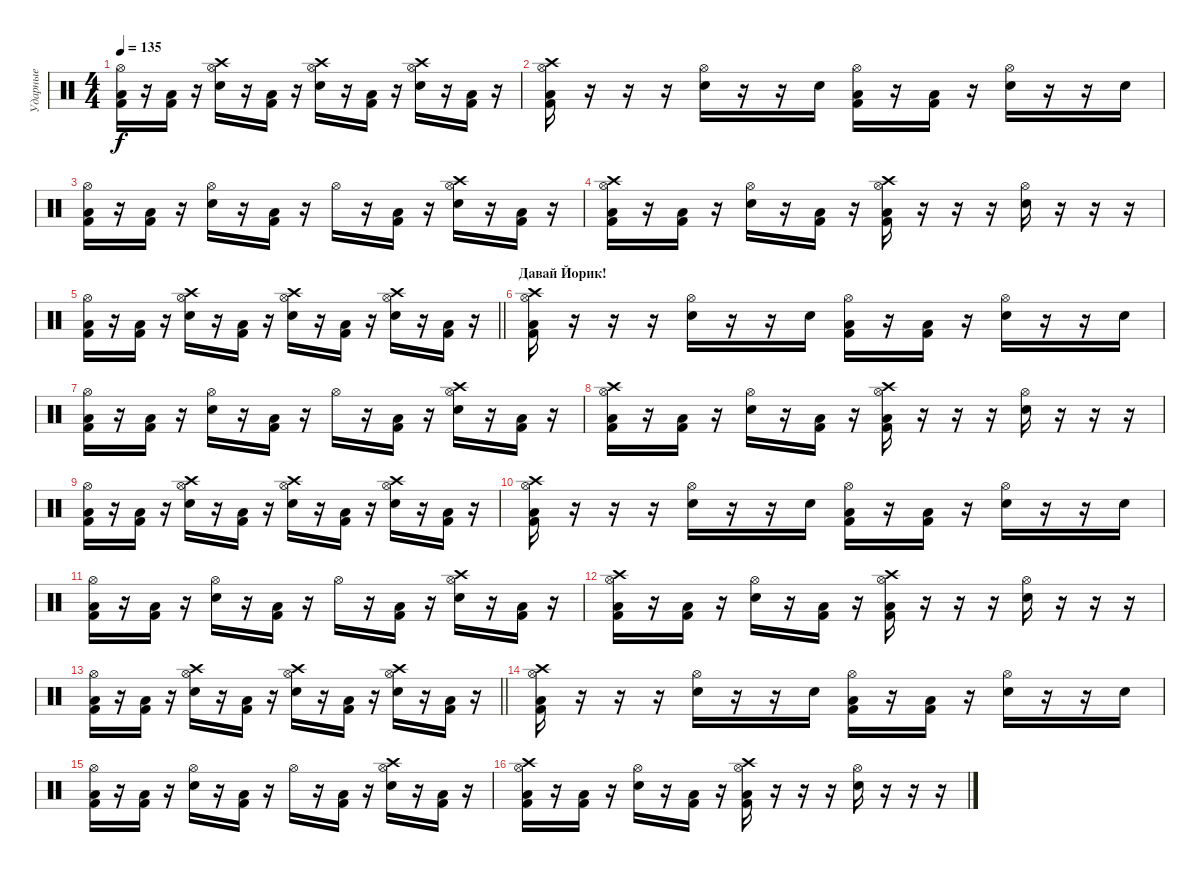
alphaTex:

\track ("Ударные" "Ударные") {instrument percussion}
\staff {score}
\articulation defaults
\ts (4 4)
\tempo 135
\clef neutral
\ks c
("Hi-Hat (open)" "Low Floor Tom (hit)" "Kick (hit) 2").16{dy f} r.16 ("Low Floor Tom (hit)" "Kick (hit) 2").16 r.16 ("Crash high (hit)" "Hi-Hat (open)" "Electric Snare (hit)").16 r.16 ("Low Floor Tom (hit)" "Kick (hit) 2").16 r.16 ("Crash high (hit)" "Hi-Hat (open)" "Electric Snare (hit)").16 r.16 ("Low Floor Tom (hit)" "Kick (hit) 2").16 r.16 ("Crash high (hit)" "Hi-Hat (open)" "Electric Snare (hit)").16 r.16 ("Low Floor Tom (hit)" "Kick (hit) 2").16 r.16 |
("Crash high (hit)" "Hi-Hat (open)" "Low Floor Tom (hit)" "Kick (hit) 2").16 r.16 r.16 r.16 ("Hi-Hat (open)" "Electric Snare (hit)").16 r.16 r.16 "Electric Snare (hit)".16 ("Hi-Hat (open)" "Low Floor Tom (hit)" "Kick (hit) 2").16 r.16 ("Low Floor Tom (hit)" "Kick (hit) 2").16 r.16 ("Hi-Hat (open)" "Electric Snare (hit)").16 r.16 r.16 "Electric Snare (hit)".16 |
("Hi-Hat (open)" "Low Floor Tom (hit)" "Kick (hit) 2").16 r.16 ("Low Floor Tom (hit)" "Kick (hit) 2").16 r.16 ("Hi-Hat (open)" "Electric Snare (hit)").16 r.16 ("Low Floor Tom (hit)" "Kick (hit) 2").16 r.16 "Hi-Hat (open)".16 r.16 ("Low Floor Tom (hit)" "Kick (hit) 2").16 r.16 ("Crash high (hit)" "Hi-Hat (open)" "Electric Snare (hit)").16 r.16 ("Low Floor Tom (hit)" "Kick (hit) 2").16 r.16 |
("Crash high (hit)" "Hi-Hat (open)" "Low Floor Tom (hit)" "Kick (hit) 2").16 r.16 ("Low Floor Tom (hit)" "Kick (hit) 2").16 r.16 ("Hi-Hat (open)" "Electric Snare (hit)").16 r.16 ("Low Floor Tom (hit)" "Kick (hit) 2").16 r.16 ("Crash high (hit)" "Hi-Hat (open)" "Low Floor Tom (hit)" "Kick (hit) 2").16 r.16 r.16 r.16 ("Hi-Hat (open)" "Electric Snare (hit)").16 r.16 r.16 r.16 |
\barLineRight lightlight
("Hi-Hat (open)" "Low Floor Tom (hit)" "Kick (hit) 2").16 r.16 ("Low Floor Tom (hit)" "Kick (hit) 2").16 r.16 ("Crash high (hit)" "Hi-Hat (open)" "Electric Snare (hit)").16 r.16 ("Low Floor Tom (hit)" "Kick (hit) 2").16 r.16 ("Crash high (hit)" "Hi-Hat (open)" "Electric Snare (hit)").16 r.16 ("Low Floor Tom (hit)" "Kick (hit) 2").16 r.16 ("Crash high (hit)" "Hi-Hat (open)" "Electric Snare (hit)").16 r.16 ("Low Floor Tom (hit)" "Kick (hit) 2").16 r.16 |
\section ("" "Давай Йорик!")
("Crash high (hit)" "Hi-Hat (open)" "Low Floor Tom (hit)" "Kick (hit) 2").16 r.16 r.16 r.16 ("Hi-Hat (open)" "Electric Snare (hit)").16 r.16 r.16 "Electric Snare (hit)".16 ("Hi-Hat (open)" "Low Floor Tom (hit)" "Kick (hit) 2").16 r.16 ("Low Floor Tom (hit)" "Kick (hit) 2").16 r.16 ("Hi-Hat (open)" "Electric Snare (hit)").16 r.16 r.16 "Electric Snare (hit)".16 |
("Hi-Hat (open)" "Low Floor Tom (hit)" "Kick (hit) 2").16 r.16 ("Low Floor Tom (hit)" "Kick (hit) 2").16 r.16 ("Hi-Hat (open)" "Electric Snare (hit)").16 r.16 ("Low Floor Tom (hit)" "Kick (hit) 2").16 r.16 "Hi-Hat (open)".16 r.16 ("Low Floor Tom (hit)" "Kick (hit) 2").16 r.16 ("Crash high (hit)" "Hi-Hat (open)" "Electric Snare (hit)").16 r.16 ("Low Floor Tom (hit)" "Kick (hit) 2").16 r.16 |
("Crash high (hit)" "Hi-Hat (open)" "Low Floor Tom (hit)" "Kick (hit) 2").16 r.16 ("Low Floor Tom (hit)" "Kick (hit) 2").16 r.16 ("Hi-Hat (open)" "Electric Snare (hit)").16 r.16 ("Low Floor Tom (hit)" "Kick (hit) 2").16 r.16 ("Crash high (hit)" "Hi-Hat (open)" "Low Floor Tom (hit)" "Kick (hit) 2").16 r.16 r.16 r.16 ("Hi-Hat (open)" "Electric Snare (hit)").16 r.16 r.16 r.16 |
("Hi-Hat (open)" "Low Floor Tom (hit)" "Kick (hit) 2").16 r.16 ("Low Floor Tom (hit)" "Kick (hit) 2").16 r.16 ("Crash high (hit)" "Hi-Hat (open)" "Electric Snare (hit)").16 r.16 ("Low Floor Tom (hit)" "Kick (hit) 2").16 r.16 ("Crash high (hit)" "Hi-Hat (open)" "Electric Snare (hit)").16 r.16 ("Low Floor Tom (hit)" "Kick (hit) 2").16 r.16 ("Crash high (hit)" "Hi-Hat (open)" "Electric Snare (hit)").16 r.16 ("Low Floor Tom (hit)" "Kick (hit) 2").16 r.16 |
("Crash high (hit)" "Hi-Hat (open)" "Low Floor Tom (hit)" "Kick (hit) 2").16 r.16 r.16 r.16 ("Hi-Hat (open)" "Electric Snare (hit)").16 r.16 r.16 "Electric Snare (hit)".16 ("Hi-Hat (open)" "Low Floor Tom (hit)" "Kick (hit) 2").16 r.16 ("Low Floor Tom (hit)" "Kick (hit) 2").16 r.16 ("Hi-Hat (open)" "Electric Snare (hit)").16 r.16 r.16 "Electric Snare (hit)".16 |
("Hi-Hat (open)" "Low Floor Tom (hit)" "Kick (hit) 2").16 r.16 ("Low Floor Tom (hit)" "Kick (hit) 2").16 r.16 ("Hi-Hat (open)" "Electric Snare (hit)").16 r.16 ("Low Floor Tom (hit)" "Kick (hit) 2").16 r.16 "Hi-Hat (open)".16 r.16 ("Low Floor Tom (hit)" "Kick (hit) 2").16 r.16 ("Crash high (hit)" "Hi-Hat (open)" "Electric Snare (hit)").16 r.16 ("Low Floor Tom (hit)" "Kick (hit) 2").16 r.16 |
("Crash high (hit)" "Hi-Hat (open)" "Low Floor Tom (hit)" "Kick (hit) 2").16 r.16 ("Low Floor Tom (hit)" "Kick (hit) 2").16 r.16 ("Hi-Hat (open)" "Electric Snare (hit)").16 r.16 ("Low Floor Tom (hit)" "Kick (hit) 2").16 r.16 ("Crash high (hit)" "Hi-Hat (open)" "Low Floor Tom (hit)" "Kick (hit) 2").16 r.16 r.16 r.16 ("Hi-Hat (open)" "Electric Snare (hit)").16 r.16 r.16 r.16 |
\barLineRight lightlight
("Hi-Hat (open)" "Low Floor Tom (hit)" "Kick (hit) 2").16 r.16 ("Low Floor Tom (hit)" "Kick (hit) 2").16 r.16 ("Crash high (hit)" "Hi-Hat (open)" "Electric Snare (hit)").16 r.16 ("Low Floor Tom (hit)" "Kick (hit) 2").16 r.16 ("Crash high (hit)" "Hi-Hat (open)" "Electric Snare (hit)").16 r.16 ("Low Floor Tom (hit)" "Kick (hit) 2").16 r.16 ("Crash high (hit)" "Hi-Hat (open)" "Electric Snare (hit)").16 r.16 ("Low Floor Tom (hit)" "Kick (hit) 2").16 r.16 |
("Crash high (hit)" "Hi-Hat (open)" "Low Floor Tom (hit)" "Kick (hit) 2").16 r.16 r.16 r.16 ("Hi-Hat (open)" "Electric Snare (hit)").16 r.16 r.16 "Electric Snare (hit)".16 ("Hi-Hat (open)" "Low Floor Tom (hit)" "Kick (hit) 2").16 r.16 ("Low Floor Tom (hit)" "Kick (hit) 2").16 r.16 ("Hi-Hat (open)" "Electric Snare (hit)").16 r.16 r.16 "Electric Snare (hit)".16 |
("Hi-Hat (open)" "Low Floor Tom (hit)" "Kick (hit) 2").16 r.16 ("Low Floor Tom (hit)" "Kick (hit) 2").16 r.16 ("Hi-Hat (open)" "Electric Snare (hit)").16 r.16 ("Low Floor Tom (hit)" "Kick (hit) 2").16 r.16 "Hi-Hat (open)".16 r.16 ("Low Floor Tom (hit)" "Kick (hit) 2").16 r.16 ("Crash high (hit)" "Hi-Hat (open)" "Electric Snare (hit)").16 r.16 ("Low Floor Tom (hit)" "Kick (hit) 2").16 r.16 |
("Crash high (hit)" "Hi-Hat (open)" "Low Floor Tom (hit)" "Kick (hit) 2").16 r.16 ("Low Floor Tom (hit)" "Kick (hit) 2").16 r.16 ("Hi-Hat (open)" "Electric Snare (hit)").16 r.16 ("Low Floor Tom (hit)" "Kick (hit) 2").16 r.16 ("Crash high (hit)" "Hi-Hat (open)" "Low Floor Tom (hit)" "Kick (hit) 2").16 r.16 r.16 r.16 ("Hi-Hat (open)" "Electric Snare (hit)").16 r.16 r.16 r.16
